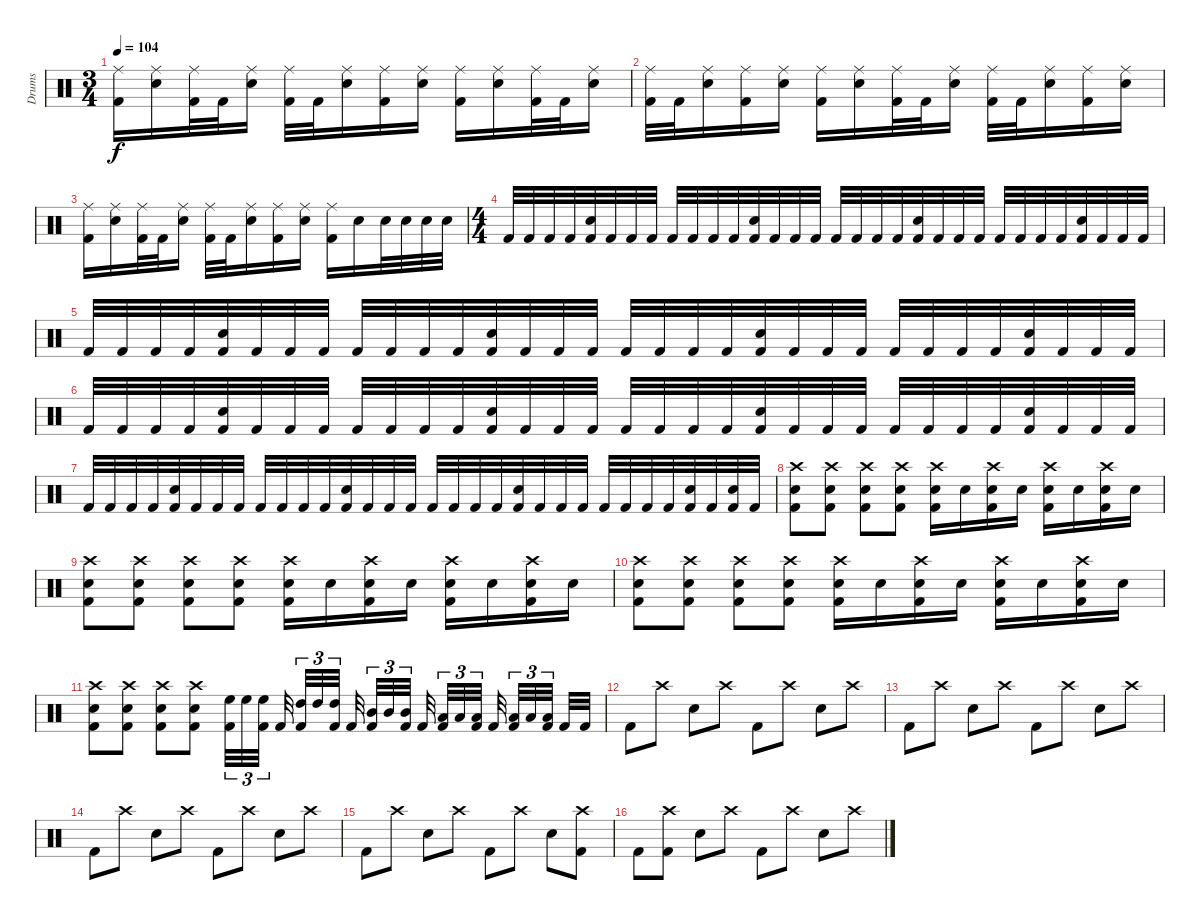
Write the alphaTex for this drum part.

\track ("Drums" "Drums") {instrument percussion}
\staff {score}
\articulation defaults
\ts (3 4)
\tempo 104
\clef neutral
\ks c
("Ride (middle)" "Kick (hit) 2").16{dy f} ("Ride (middle)" "Snare (hit) 2").16 ("Ride (middle)" "Kick (hit) 2").32 "Kick (hit) 2".32 ("Ride (middle)" "Snare (hit) 2").16 ("Ride (middle)" "Kick (hit) 2").32 "Kick (hit) 2".32 ("Ride (middle)" "Snare (hit) 2").16 ("Ride (middle)" "Kick (hit) 2").16 ("Ride (middle)" "Snare (hit) 2").16 ("Ride (middle)" "Kick (hit) 2").16 ("Ride (middle)" "Snare (hit) 2").16 ("Ride (middle)" "Kick (hit) 2").32 "Kick (hit) 2".32 ("Ride (middle)" "Snare (hit) 2").16 |
("Ride (middle)" "Kick (hit) 2").32 "Kick (hit) 2".32 ("Ride (middle)" "Snare (hit) 2").16 ("Ride (middle)" "Kick (hit) 2").16 ("Ride (middle)" "Snare (hit) 2").16 ("Ride (middle)" "Kick (hit) 2").16 ("Ride (middle)" "Snare (hit) 2").16 ("Ride (middle)" "Kick (hit) 2").32 "Kick (hit) 2".32 ("Ride (middle)" "Snare (hit) 2").16 ("Ride (middle)" "Kick (hit) 2").32 "Kick (hit) 2".32 ("Ride (middle)" "Snare (hit) 2").16 ("Ride (middle)" "Kick (hit) 2").16 ("Ride (middle)" "Snare (hit) 2").16 |
("Ride (middle)" "Kick (hit) 2").16 ("Ride (middle)" "Snare (hit) 2").16 ("Ride (middle)" "Kick (hit) 2").32 "Kick (hit) 2".32 ("Ride (middle)" "Snare (hit) 2").16 ("Ride (middle)" "Kick (hit) 2").32 "Kick (hit) 2".32 ("Ride (middle)" "Snare (hit) 2").16 ("Ride (middle)" "Kick (hit) 2").16 ("Ride (middle)" "Snare (hit) 2").16 ("Ride (middle)" "Kick (hit) 2").16 "Snare (hit) 2".16 "Snare (hit) 2".32 "Snare (hit) 2".32 "Snare (hit) 2".32 "Snare (hit) 2".32 |
\ts (4 4)
"Kick (hit) 2".32 "Kick (hit) 2".32 "Kick (hit) 2".32 "Kick (hit) 2".32 ("Snare (hit) 2" "Kick (hit) 2").32 "Kick (hit) 2".32 "Kick (hit) 2".32 "Kick (hit) 2".32 "Kick (hit) 2".32 "Kick (hit) 2".32 "Kick (hit) 2".32 "Kick (hit) 2".32 ("Snare (hit) 2" "Kick (hit) 2").32 "Kick (hit) 2".32 "Kick (hit) 2".32 "Kick (hit) 2".32 "Kick (hit) 2".32 "Kick (hit) 2".32 "Kick (hit) 2".32 "Kick (hit) 2".32 ("Snare (hit) 2" "Kick (hit) 2").32 "Kick (hit) 2".32 "Kick (hit) 2".32 "Kick (hit) 2".32 "Kick (hit) 2".32 "Kick (hit) 2".32 "Kick (hit) 2".32 "Kick (hit) 2".32 ("Snare (hit) 2" "Kick (hit) 2").32 "Kick (hit) 2".32 "Kick (hit) 2".32 "Kick (hit) 2".32 |
"Kick (hit) 2".32 "Kick (hit) 2".32 "Kick (hit) 2".32 "Kick (hit) 2".32 ("Snare (hit) 2" "Kick (hit) 2").32 "Kick (hit) 2".32 "Kick (hit) 2".32 "Kick (hit) 2".32 "Kick (hit) 2".32 "Kick (hit) 2".32 "Kick (hit) 2".32 "Kick (hit) 2".32 ("Snare (hit) 2" "Kick (hit) 2").32 "Kick (hit) 2".32 "Kick (hit) 2".32 "Kick (hit) 2".32 "Kick (hit) 2".32 "Kick (hit) 2".32 "Kick (hit) 2".32 "Kick (hit) 2".32 ("Snare (hit) 2" "Kick (hit) 2").32 "Kick (hit) 2".32 "Kick (hit) 2".32 "Kick (hit) 2".32 "Kick (hit) 2".32 "Kick (hit) 2".32 "Kick (hit) 2".32 "Kick (hit) 2".32 ("Snare (hit) 2" "Kick (hit) 2").32 "Kick (hit) 2".32 "Kick (hit) 2".32 "Kick (hit) 2".32 |
"Kick (hit) 2".32 "Kick (hit) 2".32 "Kick (hit) 2".32 "Kick (hit) 2".32 ("Snare (hit) 2" "Kick (hit) 2").32 "Kick (hit) 2".32 "Kick (hit) 2".32 "Kick (hit) 2".32 "Kick (hit) 2".32 "Kick (hit) 2".32 "Kick (hit) 2".32 "Kick (hit) 2".32 ("Snare (hit) 2" "Kick (hit) 2").32 "Kick (hit) 2".32 "Kick (hit) 2".32 "Kick (hit) 2".32 "Kick (hit) 2".32 "Kick (hit) 2".32 "Kick (hit) 2".32 "Kick (hit) 2".32 ("Snare (hit) 2" "Kick (hit) 2").32 "Kick (hit) 2".32 "Kick (hit) 2".32 "Kick (hit) 2".32 "Kick (hit) 2".32 "Kick (hit) 2".32 "Kick (hit) 2".32 "Kick (hit) 2".32 ("Snare (hit) 2" "Kick (hit) 2").32 "Kick (hit) 2".32 "Kick (hit) 2".32 "Kick (hit) 2".32 |
"Kick (hit) 2".32 "Kick (hit) 2".32 "Kick (hit) 2".32 "Kick (hit) 2".32 ("Snare (hit) 2" "Kick (hit) 2").32 "Kick (hit) 2".32 "Kick (hit) 2".32 "Kick (hit) 2".32 "Kick (hit) 2".32 "Kick (hit) 2".32 "Kick (hit) 2".32 "Kick (hit) 2".32 ("Snare (hit) 2" "Kick (hit) 2").32 "Kick (hit) 2".32 "Kick (hit) 2".32 "Kick (hit) 2".32 "Kick (hit) 2".32 "Kick (hit) 2".32 "Kick (hit) 2".32 "Kick (hit) 2".32 ("Snare (hit) 2" "Kick (hit) 2").32 "Kick (hit) 2".32 "Kick (hit) 2".32 "Kick (hit) 2".32 "Kick (hit) 2".32 "Kick (hit) 2".32 "Kick (hit) 2".32 "Kick (hit) 2".32 ("Snare (hit) 2" "Kick (hit) 2").32 "Kick (hit) 2".32 ("Snare (hit) 2" "Kick (hit) 2").32 "Kick (hit) 2".32 |
("Crash high (hit)" "Snare (hit) 2" "Kick (hit) 2").8 ("Crash high (hit)" "Snare (hit) 2" "Kick (hit) 2").8 ("Crash high (hit)" "Snare (hit) 2" "Kick (hit) 2").8 ("Crash high (hit)" "Snare (hit) 2" "Kick (hit) 2").8 ("Crash high (hit)" "Snare (hit) 2" "Kick (hit) 2").16 "Snare (hit) 2".16 ("Crash high (hit)" "Snare (hit) 2" "Kick (hit) 2").16 "Snare (hit) 2".16 ("Crash high (hit)" "Snare (hit) 2" "Kick (hit) 2").16 "Snare (hit) 2".16 ("Crash high (hit)" "Snare (hit) 2" "Kick (hit) 2").16 "Snare (hit) 2".16 |
("Crash high (hit)" "Snare (hit) 2" "Kick (hit) 2").8 ("Crash high (hit)" "Snare (hit) 2" "Kick (hit) 2").8 ("Crash high (hit)" "Snare (hit) 2" "Kick (hit) 2").8 ("Crash high (hit)" "Snare (hit) 2" "Kick (hit) 2").8 ("Crash high (hit)" "Snare (hit) 2" "Kick (hit) 2").16 "Snare (hit) 2".16 ("Crash high (hit)" "Snare (hit) 2" "Kick (hit) 2").16 "Snare (hit) 2".16 ("Crash high (hit)" "Snare (hit) 2" "Kick (hit) 2").16 "Snare (hit) 2".16 ("Crash high (hit)" "Snare (hit) 2" "Kick (hit) 2").16 "Snare (hit) 2".16 |
("Crash high (hit)" "Snare (hit) 2" "Kick (hit) 2").8 ("Crash high (hit)" "Snare (hit) 2" "Kick (hit) 2").8 ("Crash high (hit)" "Snare (hit) 2" "Kick (hit) 2").8 ("Crash high (hit)" "Snare (hit) 2" "Kick (hit) 2").8 ("Crash high (hit)" "Snare (hit) 2" "Kick (hit) 2").16 "Snare (hit) 2".16 ("Crash high (hit)" "Snare (hit) 2" "Kick (hit) 2").16 "Snare (hit) 2".16 ("Crash high (hit)" "Snare (hit) 2" "Kick (hit) 2").16 "Snare (hit) 2".16 ("Crash high (hit)" "Snare (hit) 2" "Kick (hit) 2").16 "Snare (hit) 2".16 |
("Crash high (hit)" "Snare (hit) 2" "Kick (hit) 2").8 ("Crash high (hit)" "Snare (hit) 2" "Kick (hit) 2").8 ("Crash high (hit)" "Snare (hit) 2" "Kick (hit) 2").8 ("Crash high (hit)" "Snare (hit) 2" "Kick (hit) 2").8 ("High Floor Tom (hit)" "Kick (hit) 2").32{tu (3 2)} "High Floor Tom (hit)".32{tu (3 2)} ("High Floor Tom (hit)" "Kick (hit) 2").32{tu (3 2) beam splitsecondary} "Kick (hit) 2".32{beam splitsecondary} ("High Tom (hit)" "Kick (hit) 2").32{tu (3 2)} "High Tom (hit)".32{tu (3 2)} ("High Tom (hit)" "Kick (hit) 2").32{tu (3 2) beam splitsecondary} "Kick (hit) 2".32{beam splitsecondary} ("Mid Tom (hit)" "Kick (hit) 2").32{tu (3 2)} "Mid Tom (hit)".32{tu (3 2)} ("Mid Tom (hit)" "Kick (hit) 2").32{tu (3 2)} "Kick (hit) 2".32{beam splitsecondary} ("Low Tom (hit)" "Kick (hit) 2").32{tu (3 2)} "Low Tom (hit)".32{tu (3 2)} ("Low Tom (hit)" "Kick (hit) 2").32{tu (3 2) beam splitsecondary} "Kick (hit) 2".32{beam splitsecondary} ("Low Floor Tom (hit)" "Kick (hit) 2").32{tu (3 2)} "Low Floor Tom (hit)".32{tu (3 2)} ("Low Floor Tom (hit)" "Kick (hit) 2").32{tu (3 2) beam splitsecondary} "Kick (hit) 2".32 "Kick (hit) 2".32 |
"Kick (hit) 2".8 "Crash high (hit)".8 "Snare (hit) 2".8 "Crash high (hit)".8 "Kick (hit) 2".8 "Crash high (hit)".8 "Snare (hit) 2".8 "Crash high (hit)".8 |
"Kick (hit) 2".8 "Crash high (hit)".8 "Snare (hit) 2".8 "Crash high (hit)".8 "Kick (hit) 2".8 "Crash high (hit)".8 "Snare (hit) 2".8 "Crash high (hit)".8 |
"Kick (hit) 2".8 "Crash high (hit)".8 "Snare (hit) 2".8 "Crash high (hit)".8 "Kick (hit) 2".8 "Crash high (hit)".8 "Snare (hit) 2".8 "Crash high (hit)".8 |
"Kick (hit) 2".8 "Crash high (hit)".8 "Snare (hit) 2".8 "Crash high (hit)".8 "Kick (hit) 2".8 "Crash high (hit)".8 "Snare (hit) 2".8 ("Crash high (hit)" "Kick (hit) 2").8 |
"Kick (hit) 2".8 ("Crash high (hit)" "Kick (hit) 2").8 "Snare (hit) 2".8 "Crash high (hit)".8 "Kick (hit) 2".8 "Crash high (hit)".8 "Snare (hit) 2".8 "Crash high (hit)".8
